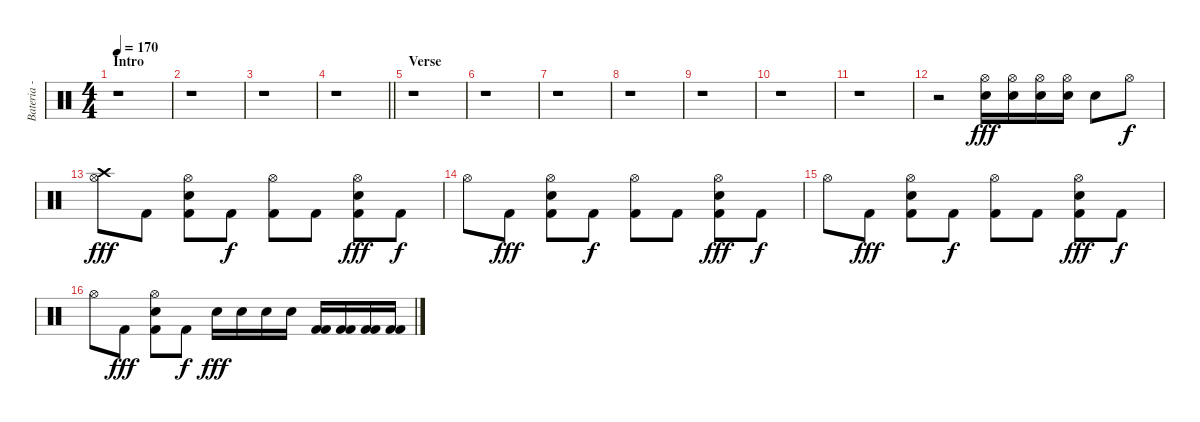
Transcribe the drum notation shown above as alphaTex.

\track ("Bateria - Larzon" "Bateria - ") {instrument percussion}
\staff {score}
\articulation defaults
\ts (4 4)
\section ("" "Intro")
\tempo 170
\clef neutral
\ks c
r.1{dy fff} |
r.1 |
r.1 |
\barLineRight lightlight
r.1 |
\section ("" "Verse")
r.1 |
r.1 |
r.1 |
r.1 |
r.1 |
r.1 |
r.1 |
r.2 ("Hi-Hat (open)" "Snare (hit) 2").16 ("Hi-Hat (open)" "Snare (hit) 2").16 ("Hi-Hat (open)" "Snare (hit) 2").16 ("Hi-Hat (open)" "Snare (hit) 2").16 "Snare (hit) 2".8 "Hi-Hat (open)".8{dy f} |
("Crash high (hit)" "Hi-Hat (open)").8{dy fff} "Kick (hit) 2".8 ("Kick (hit) 2" "Hi-Hat (open)" "Snare (hit) 2").8 "Kick (hit) 2".8{dy f} ("Kick (hit) 2" "Hi-Hat (open)").8 "Kick (hit) 2".8 ("Kick (hit) 2" "Hi-Hat (open)" "Snare (hit) 2").8{dy fff} "Kick (hit) 2".8{dy f} |
"Hi-Hat (open)".8 "Kick (hit) 2".8{dy fff} ("Kick (hit) 2" "Hi-Hat (open)" "Snare (hit) 2").8 "Kick (hit) 2".8{dy f} ("Kick (hit) 2" "Hi-Hat (open)").8 "Kick (hit) 2".8 ("Kick (hit) 2" "Hi-Hat (open)" "Snare (hit) 2").8{dy fff} "Kick (hit) 2".8{dy f} |
"Hi-Hat (open)".8 "Kick (hit) 2".8{dy fff} ("Kick (hit) 2" "Hi-Hat (open)" "Snare (hit) 2").8 "Kick (hit) 2".8{dy f} ("Kick (hit) 2" "Hi-Hat (open)").8 "Kick (hit) 2".8 ("Kick (hit) 2" "Hi-Hat (open)" "Snare (hit) 2").8{dy fff} "Kick (hit) 2".8{dy f} |
"Hi-Hat (open)".8 "Kick (hit) 2".8{dy fff} ("Kick (hit) 2" "Hi-Hat (open)" "Snare (hit) 2").8 "Kick (hit) 2".8{dy f} "Snare (hit) 2".16{dy fff} "Snare (hit) 2".16 "Snare (hit) 2".16 "Snare (hit) 2".16 ("Kick (hit) 2" "Kick (hit) 2").16 ("Kick (hit) 2" "Kick (hit) 2").16 ("Kick (hit) 2" "Kick (hit) 2").16 ("Kick (hit) 2" "Kick (hit) 2").16
